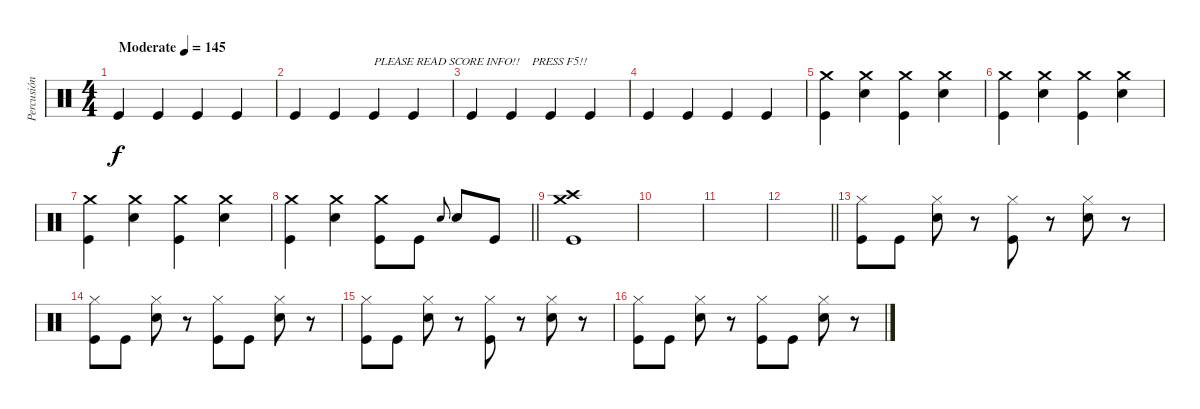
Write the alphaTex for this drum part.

\track ("Percusión" "Percusión") {instrument percussion}
\staff {score}
\articulation defaults
\ts (4 4)
\tempo (145 "Moderate")
\clef neutral
\ks c "Kick (hit)".4{dy f} "Kick (hit)".4 "Kick (hit)".4 "Kick (hit)".4
|
"Kick (hit)".4 "Kick (hit)".4 "Kick (hit)".4{txt "PLEASE READ SCORE INFO!!    PRESS F5!!"} "Kick (hit)".4 |
"Kick (hit)".4 "Kick (hit)".4 "Kick (hit)".4 "Kick (hit)".4 |
"Kick (hit)".4 "Kick (hit)".4 "Kick (hit)".4 "Kick (hit)".4 |
("Crash medium (hit)" "Kick (hit)").4 ("Crash medium (hit)" "Snare (hit) 2").4 ("Crash medium (hit)" "Kick (hit)").4 ("Crash medium (hit)" "Snare (hit) 2").4 |
("Crash medium (hit)" "Kick (hit)").4 ("Crash medium (hit)" "Snare (hit) 2").4 ("Crash medium (hit)" "Kick (hit)").4 ("Crash medium (hit)" "Snare (hit) 2").4 |
("Crash medium (hit)" "Kick (hit)").4 ("Crash medium (hit)" "Snare (hit) 2").4 ("Crash medium (hit)" "Kick (hit)").4 ("Crash medium (hit)" "Snare (hit) 2").4 |
\barLineRight lightlight
("Crash medium (hit)" "Kick (hit)").4 ("Crash medium (hit)" "Snare (hit) 2").4 ("Crash medium (hit)" "Kick (hit)").8 "Kick (hit)".8 "Snare (hit) 2".8{gr onbeat} "Snare (hit) 2".8 "Kick (hit)".8 |
("Crash medium (hit)" "Crash high (hit)" "Kick (hit)").1 |
|
|
\barLineRight lightlight
|
("Hi-Hat (closed)" "Kick (hit)").8 "Kick (hit)".8 ("Hi-Hat (closed)" "Snare (hit) 2").8 r.8 ("Hi-Hat (closed)" "Kick (hit)").8 r.8 ("Hi-Hat (closed)" "Snare (hit) 2").8 r.8 |
("Hi-Hat (closed)" "Kick (hit)").8 "Kick (hit)".8 ("Hi-Hat (closed)" "Snare (hit) 2").8 r.8 ("Hi-Hat (closed)" "Kick (hit)").8 "Kick (hit)".8 ("Hi-Hat (closed)" "Snare (hit) 2").8 r.8 |
("Hi-Hat (closed)" "Kick (hit)").8 "Kick (hit)".8 ("Hi-Hat (closed)" "Snare (hit) 2").8 r.8 ("Hi-Hat (closed)" "Kick (hit)").8 r.8 ("Hi-Hat (closed)" "Snare (hit) 2").8 r.8 |
("Hi-Hat (closed)" "Kick (hit)").8 "Kick (hit)".8 ("Hi-Hat (closed)" "Snare (hit) 2").8 r.8 ("Hi-Hat (closed)" "Kick (hit)").8 "Kick (hit)".8 ("Hi-Hat (closed)" "Snare (hit) 2").8 r.8
